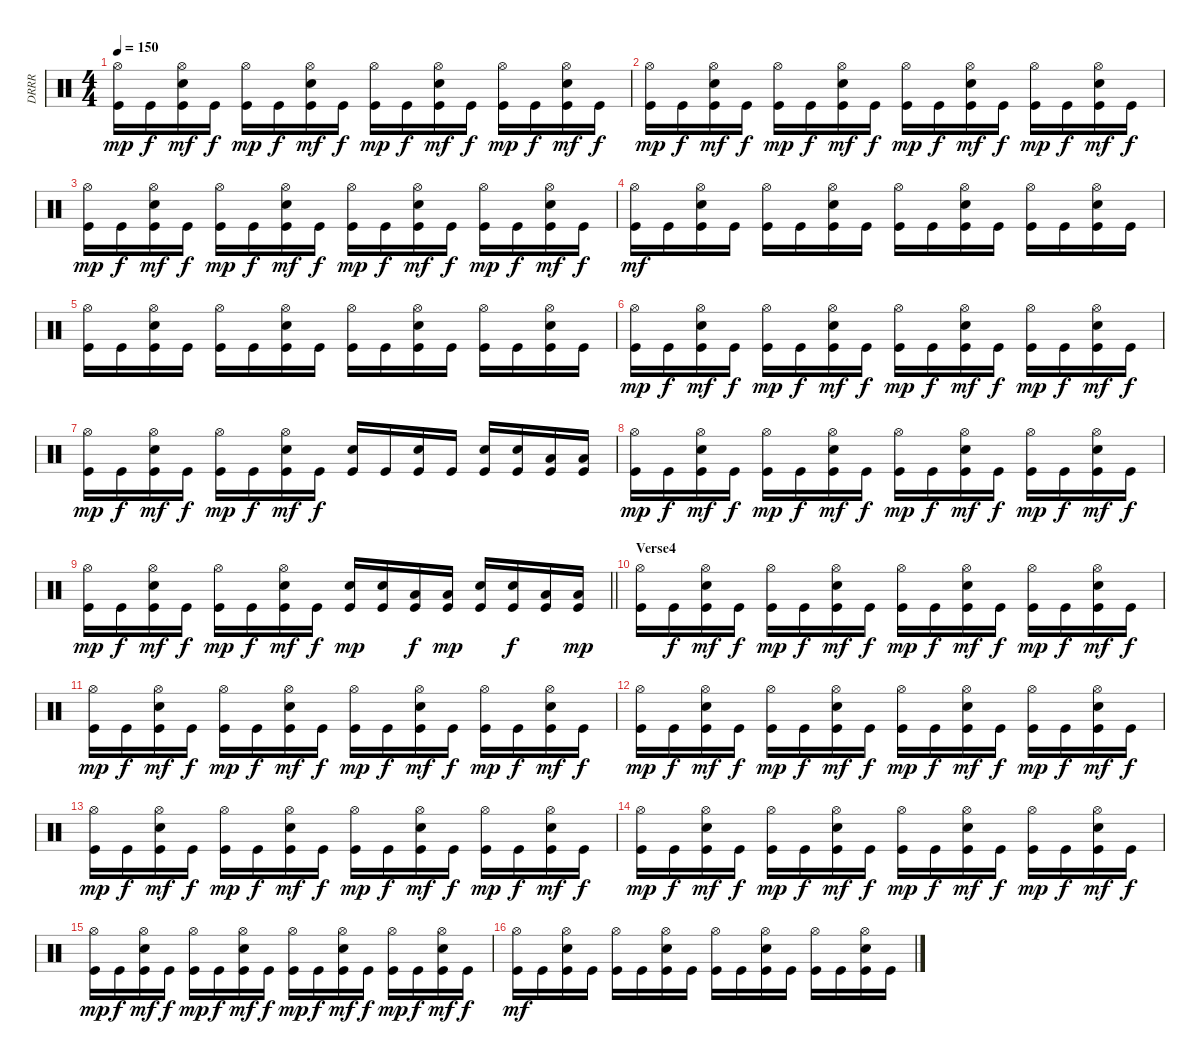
\track ("DRRR" "DRRR") {instrument percussion}
\staff {score}
\articulation defaults
\ts (4 4)
\tempo 150
\clef neutral
\ks c
("Hi-Hat (open)" "Kick (hit)").16{dy mp} "Kick (hit)".16{dy f} ("Hi-Hat (open)" "Snare (hit) 2" "Kick (hit)").16{dy mf} "Kick (hit)".16{dy f} ("Hi-Hat (open)" "Kick (hit)").16{dy mp} "Kick (hit)".16{dy f} ("Hi-Hat (open)" "Snare (hit) 2" "Kick (hit)").16{dy mf} "Kick (hit)".16{dy f} ("Hi-Hat (open)" "Kick (hit)").16{dy mp} "Kick (hit)".16{dy f} ("Hi-Hat (open)" "Snare (hit) 2" "Kick (hit)").16{dy mf} "Kick (hit)".16{dy f} ("Hi-Hat (open)" "Kick (hit)").16{dy mp} "Kick (hit)".16{dy f} ("Hi-Hat (open)" "Snare (hit) 2" "Kick (hit)").16{dy mf} "Kick (hit)".16{dy f} |
("Hi-Hat (open)" "Kick (hit)").16{dy mp} "Kick (hit)".16{dy f} ("Hi-Hat (open)" "Snare (hit) 2" "Kick (hit)").16{dy mf} "Kick (hit)".16{dy f} ("Hi-Hat (open)" "Kick (hit)").16{dy mp} "Kick (hit)".16{dy f} ("Hi-Hat (open)" "Snare (hit) 2" "Kick (hit)").16{dy mf} "Kick (hit)".16{dy f} ("Hi-Hat (open)" "Kick (hit)").16{dy mp} "Kick (hit)".16{dy f} ("Hi-Hat (open)" "Snare (hit) 2" "Kick (hit)").16{dy mf} "Kick (hit)".16{dy f} ("Hi-Hat (open)" "Kick (hit)").16{dy mp} "Kick (hit)".16{dy f} ("Hi-Hat (open)" "Snare (hit) 2" "Kick (hit)").16{dy mf} "Kick (hit)".16{dy f} |
("Hi-Hat (open)" "Kick (hit)").16{dy mp} "Kick (hit)".16{dy f} ("Hi-Hat (open)" "Snare (hit) 2" "Kick (hit)").16{dy mf} "Kick (hit)".16{dy f} ("Hi-Hat (open)" "Kick (hit)").16{dy mp} "Kick (hit)".16{dy f} ("Hi-Hat (open)" "Snare (hit) 2" "Kick (hit)").16{dy mf} "Kick (hit)".16{dy f} ("Hi-Hat (open)" "Kick (hit)").16{dy mp} "Kick (hit)".16{dy f} ("Hi-Hat (open)" "Snare (hit) 2" "Kick (hit)").16{dy mf} "Kick (hit)".16{dy f} ("Hi-Hat (open)" "Kick (hit)").16{dy mp} "Kick (hit)".16{dy f} ("Hi-Hat (open)" "Snare (hit) 2" "Kick (hit)").16{dy mf} "Kick (hit)".16{dy f} |
("Hi-Hat (open)" "Kick (hit)").16{dy mf} "Kick (hit)".16 ("Hi-Hat (open)" "Snare (hit) 2" "Kick (hit)").16 "Kick (hit)".16 ("Hi-Hat (open)" "Kick (hit)").16 "Kick (hit)".16 ("Hi-Hat (open)" "Snare (hit) 2" "Kick (hit)").16 "Kick (hit)".16 ("Hi-Hat (open)" "Kick (hit)").16 "Kick (hit)".16 ("Hi-Hat (open)" "Snare (hit) 2" "Kick (hit)").16 "Kick (hit)".16 ("Hi-Hat (open)" "Kick (hit)").16 "Kick (hit)".16 ("Hi-Hat (open)" "Snare (hit) 2" "Kick (hit)").16 "Kick (hit)".16 |
("Hi-Hat (open)" "Kick (hit)").16 "Kick (hit)".16 ("Hi-Hat (open)" "Snare (hit) 2" "Kick (hit)").16 "Kick (hit)".16 ("Hi-Hat (open)" "Kick (hit)").16 "Kick (hit)".16 ("Hi-Hat (open)" "Snare (hit) 2" "Kick (hit)").16 "Kick (hit)".16 ("Hi-Hat (open)" "Kick (hit)").16 "Kick (hit)".16 ("Hi-Hat (open)" "Snare (hit) 2" "Kick (hit)").16 "Kick (hit)".16 ("Hi-Hat (open)" "Kick (hit)").16 "Kick (hit)".16 ("Hi-Hat (open)" "Snare (hit) 2" "Kick (hit)").16 "Kick (hit)".16 |
("Hi-Hat (open)" "Kick (hit)").16{dy mp} "Kick (hit)".16{dy f} ("Hi-Hat (open)" "Snare (hit) 2" "Kick (hit)").16{dy mf} "Kick (hit)".16{dy f} ("Hi-Hat (open)" "Kick (hit)").16{dy mp} "Kick (hit)".16{dy f} ("Hi-Hat (open)" "Snare (hit) 2" "Kick (hit)").16{dy mf} "Kick (hit)".16{dy f} ("Hi-Hat (open)" "Kick (hit)").16{dy mp} "Kick (hit)".16{dy f} ("Hi-Hat (open)" "Snare (hit) 2" "Kick (hit)").16{dy mf} "Kick (hit)".16{dy f} ("Hi-Hat (open)" "Kick (hit)").16{dy mp} "Kick (hit)".16{dy f} ("Hi-Hat (open)" "Snare (hit) 2" "Kick (hit)").16{dy mf} "Kick (hit)".16{dy f} |
("Hi-Hat (open)" "Kick (hit)").16{dy mp} "Kick (hit)".16{dy f} ("Hi-Hat (open)" "Snare (hit) 2" "Kick (hit)").16{dy mf} "Kick (hit)".16{dy f} ("Hi-Hat (open)" "Kick (hit)").16{dy mp} "Kick (hit)".16{dy f} ("Hi-Hat (open)" "Snare (hit) 2" "Kick (hit)").16{dy mf} "Kick (hit)".16{dy f} ("Snare (hit) 2" "Kick (hit)").16 "Kick (hit)".16 ("Snare (hit) 2" "Kick (hit)").16 "Kick (hit)".16 ("Snare (hit) 2" "Kick (hit)").16 ("Snare (hit) 2" "Kick (hit)").16 ("Low Tom (hit)" "Kick (hit)").16 ("Low Tom (hit)" "Kick (hit)").16 |
("Hi-Hat (open)" "Kick (hit)").16{dy mp} "Kick (hit)".16{dy f} ("Hi-Hat (open)" "Snare (hit) 2" "Kick (hit)").16{dy mf} "Kick (hit)".16{dy f} ("Hi-Hat (open)" "Kick (hit)").16{dy mp} "Kick (hit)".16{dy f} ("Hi-Hat (open)" "Snare (hit) 2" "Kick (hit)").16{dy mf} "Kick (hit)".16{dy f} ("Hi-Hat (open)" "Kick (hit)").16{dy mp} "Kick (hit)".16{dy f} ("Hi-Hat (open)" "Snare (hit) 2" "Kick (hit)").16{dy mf} "Kick (hit)".16{dy f} ("Hi-Hat (open)" "Kick (hit)").16{dy mp} "Kick (hit)".16{dy f} ("Hi-Hat (open)" "Snare (hit) 2" "Kick (hit)").16{dy mf} "Kick (hit)".16{dy f} |
\barLineRight lightlight
("Hi-Hat (open)" "Kick (hit)").16{dy mp} "Kick (hit)".16{dy f} ("Hi-Hat (open)" "Snare (hit) 2" "Kick (hit)").16{dy mf} "Kick (hit)".16{dy f} ("Hi-Hat (open)" "Kick (hit)").16{dy mp} "Kick (hit)".16{dy f} ("Hi-Hat (open)" "Snare (hit) 2" "Kick (hit)").16{dy mf} "Kick (hit)".16{dy f} ("Snare (hit) 2" "Kick (hit)").16{dy mp} ("Snare (hit) 2" "Kick (hit)").16 ("Low Tom (hit)" "Kick (hit)").16{dy f} ("Low Tom (hit)" "Kick (hit)").16{dy mp} ("Snare (hit) 2" "Kick (hit)").16 ("Snare (hit) 2" "Kick (hit)").16{dy f} ("Low Tom (hit)" "Kick (hit)").16 ("Low Tom (hit)" "Kick (hit)").16{dy mp} |
\section ("" "Verse4")
("Hi-Hat (open)" "Kick (hit)").16 "Kick (hit)".16{dy f} ("Hi-Hat (open)" "Snare (hit) 2" "Kick (hit)").16{dy mf} "Kick (hit)".16{dy f} ("Hi-Hat (open)" "Kick (hit)").16{dy mp} "Kick (hit)".16{dy f} ("Hi-Hat (open)" "Snare (hit) 2" "Kick (hit)").16{dy mf} "Kick (hit)".16{dy f} ("Hi-Hat (open)" "Kick (hit)").16{dy mp} "Kick (hit)".16{dy f} ("Hi-Hat (open)" "Snare (hit) 2" "Kick (hit)").16{dy mf} "Kick (hit)".16{dy f} ("Hi-Hat (open)" "Kick (hit)").16{dy mp} "Kick (hit)".16{dy f} ("Hi-Hat (open)" "Snare (hit) 2" "Kick (hit)").16{dy mf} "Kick (hit)".16{dy f} |
("Hi-Hat (open)" "Kick (hit)").16{dy mp} "Kick (hit)".16{dy f} ("Hi-Hat (open)" "Snare (hit) 2" "Kick (hit)").16{dy mf} "Kick (hit)".16{dy f} ("Hi-Hat (open)" "Kick (hit)").16{dy mp} "Kick (hit)".16{dy f} ("Hi-Hat (open)" "Snare (hit) 2" "Kick (hit)").16{dy mf} "Kick (hit)".16{dy f} ("Hi-Hat (open)" "Kick (hit)").16{dy mp} "Kick (hit)".16{dy f} ("Hi-Hat (open)" "Snare (hit) 2" "Kick (hit)").16{dy mf} "Kick (hit)".16{dy f} ("Hi-Hat (open)" "Kick (hit)").16{dy mp} "Kick (hit)".16{dy f} ("Hi-Hat (open)" "Snare (hit) 2" "Kick (hit)").16{dy mf} "Kick (hit)".16{dy f} |
("Hi-Hat (open)" "Kick (hit)").16{dy mp} "Kick (hit)".16{dy f} ("Hi-Hat (open)" "Snare (hit) 2" "Kick (hit)").16{dy mf} "Kick (hit)".16{dy f} ("Hi-Hat (open)" "Kick (hit)").16{dy mp} "Kick (hit)".16{dy f} ("Hi-Hat (open)" "Snare (hit) 2" "Kick (hit)").16{dy mf} "Kick (hit)".16{dy f} ("Hi-Hat (open)" "Kick (hit)").16{dy mp} "Kick (hit)".16{dy f} ("Hi-Hat (open)" "Snare (hit) 2" "Kick (hit)").16{dy mf} "Kick (hit)".16{dy f} ("Hi-Hat (open)" "Kick (hit)").16{dy mp} "Kick (hit)".16{dy f} ("Hi-Hat (open)" "Snare (hit) 2" "Kick (hit)").16{dy mf} "Kick (hit)".16{dy f} |
("Hi-Hat (open)" "Kick (hit)").16{dy mp} "Kick (hit)".16{dy f} ("Hi-Hat (open)" "Snare (hit) 2" "Kick (hit)").16{dy mf} "Kick (hit)".16{dy f} ("Hi-Hat (open)" "Kick (hit)").16{dy mp} "Kick (hit)".16{dy f} ("Hi-Hat (open)" "Snare (hit) 2" "Kick (hit)").16{dy mf} "Kick (hit)".16{dy f} ("Hi-Hat (open)" "Kick (hit)").16{dy mp} "Kick (hit)".16{dy f} ("Hi-Hat (open)" "Snare (hit) 2" "Kick (hit)").16{dy mf} "Kick (hit)".16{dy f} ("Hi-Hat (open)" "Kick (hit)").16{dy mp} "Kick (hit)".16{dy f} ("Hi-Hat (open)" "Snare (hit) 2" "Kick (hit)").16{dy mf} "Kick (hit)".16{dy f} |
("Hi-Hat (open)" "Kick (hit)").16{dy mp} "Kick (hit)".16{dy f} ("Hi-Hat (open)" "Snare (hit) 2" "Kick (hit)").16{dy mf} "Kick (hit)".16{dy f} ("Hi-Hat (open)" "Kick (hit)").16{dy mp} "Kick (hit)".16{dy f} ("Hi-Hat (open)" "Snare (hit) 2" "Kick (hit)").16{dy mf} "Kick (hit)".16{dy f} ("Hi-Hat (open)" "Kick (hit)").16{dy mp} "Kick (hit)".16{dy f} ("Hi-Hat (open)" "Snare (hit) 2" "Kick (hit)").16{dy mf} "Kick (hit)".16{dy f} ("Hi-Hat (open)" "Kick (hit)").16{dy mp} "Kick (hit)".16{dy f} ("Hi-Hat (open)" "Snare (hit) 2" "Kick (hit)").16{dy mf} "Kick (hit)".16{dy f} |
("Hi-Hat (open)" "Kick (hit)").16{dy mp} "Kick (hit)".16{dy f} ("Hi-Hat (open)" "Snare (hit) 2" "Kick (hit)").16{dy mf} "Kick (hit)".16{dy f} ("Hi-Hat (open)" "Kick (hit)").16{dy mp} "Kick (hit)".16{dy f} ("Hi-Hat (open)" "Snare (hit) 2" "Kick (hit)").16{dy mf} "Kick (hit)".16{dy f} ("Hi-Hat (open)" "Kick (hit)").16{dy mp} "Kick (hit)".16{dy f} ("Hi-Hat (open)" "Snare (hit) 2" "Kick (hit)").16{dy mf} "Kick (hit)".16{dy f} ("Hi-Hat (open)" "Kick (hit)").16{dy mp} "Kick (hit)".16{dy f} ("Hi-Hat (open)" "Snare (hit) 2" "Kick (hit)").16{dy mf} "Kick (hit)".16{dy f} |
("Hi-Hat (open)" "Kick (hit)").16{dy mf} "Kick (hit)".16 ("Hi-Hat (open)" "Snare (hit) 2" "Kick (hit)").16 "Kick (hit)".16 ("Hi-Hat (open)" "Kick (hit)").16 "Kick (hit)".16 ("Hi-Hat (open)" "Snare (hit) 2" "Kick (hit)").16 "Kick (hit)".16 ("Hi-Hat (open)" "Kick (hit)").16 "Kick (hit)".16 ("Hi-Hat (open)" "Snare (hit) 2" "Kick (hit)").16 "Kick (hit)".16 ("Hi-Hat (open)" "Kick (hit)").16 "Kick (hit)".16 ("Hi-Hat (open)" "Snare (hit) 2" "Kick (hit)").16 "Kick (hit)".16
